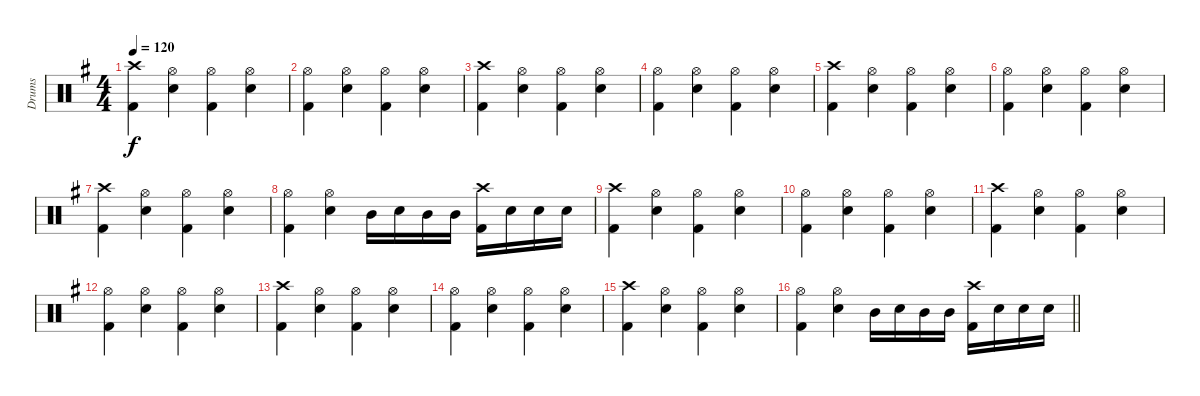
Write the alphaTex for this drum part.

\track ("Drums" "Drums") {instrument percussion}
\staff {score}
\articulation defaults
\ts (4 4)
\tempo 120
\clef neutral
\ks g
("Crash high (hit)" "Kick (hit) 2").4{dy f} ("Hi-Hat (open)" "Snare (hit) 2").4 ("Hi-Hat (open)" "Kick (hit) 2").4 ("Hi-Hat (open)" "Snare (hit) 2").4 |
("Hi-Hat (open)" "Kick (hit) 2").4 ("Hi-Hat (open)" "Snare (hit) 2").4 ("Hi-Hat (open)" "Kick (hit) 2").4 ("Hi-Hat (open)" "Snare (hit) 2").4 |
("Crash high (hit)" "Kick (hit) 2").4 ("Hi-Hat (open)" "Snare (hit) 2").4 ("Hi-Hat (open)" "Kick (hit) 2").4 ("Hi-Hat (open)" "Snare (hit) 2").4 |
("Hi-Hat (open)" "Kick (hit) 2").4 ("Hi-Hat (open)" "Snare (hit) 2").4 ("Hi-Hat (open)" "Kick (hit) 2").4 ("Hi-Hat (open)" "Snare (hit) 2").4 |
("Crash high (hit)" "Kick (hit) 2").4 ("Hi-Hat (open)" "Snare (hit) 2").4 ("Hi-Hat (open)" "Kick (hit) 2").4 ("Hi-Hat (open)" "Snare (hit) 2").4 |
("Hi-Hat (open)" "Kick (hit) 2").4 ("Hi-Hat (open)" "Snare (hit) 2").4 ("Hi-Hat (open)" "Kick (hit) 2").4 ("Hi-Hat (open)" "Snare (hit) 2").4 |
("Crash high (hit)" "Kick (hit) 2").4 ("Hi-Hat (open)" "Snare (hit) 2").4 ("Hi-Hat (open)" "Kick (hit) 2").4 ("Hi-Hat (open)" "Snare (hit) 2").4 |
("Hi-Hat (open)" "Kick (hit) 2").4 ("Hi-Hat (open)" "Snare (hit) 2").4 "Mid Tom (hit)".16 "Snare (hit) 2".16 "Mid Tom (hit)".16 "Mid Tom (hit)".16 ("Crash high (hit)" "Kick (hit) 2").16 "Snare (hit) 2".16 "Snare (hit) 2".16 "Snare (hit) 2".16 |
("Crash high (hit)" "Kick (hit) 2").4 ("Hi-Hat (open)" "Snare (hit) 2").4 ("Hi-Hat (open)" "Kick (hit) 2").4 ("Hi-Hat (open)" "Snare (hit) 2").4 |
("Hi-Hat (open)" "Kick (hit) 2").4 ("Hi-Hat (open)" "Snare (hit) 2").4 ("Hi-Hat (open)" "Kick (hit) 2").4 ("Hi-Hat (open)" "Snare (hit) 2").4 |
("Crash high (hit)" "Kick (hit) 2").4 ("Hi-Hat (open)" "Snare (hit) 2").4 ("Hi-Hat (open)" "Kick (hit) 2").4 ("Hi-Hat (open)" "Snare (hit) 2").4 |
("Hi-Hat (open)" "Kick (hit) 2").4 ("Hi-Hat (open)" "Snare (hit) 2").4 ("Hi-Hat (open)" "Kick (hit) 2").4 ("Hi-Hat (open)" "Snare (hit) 2").4 |
("Crash high (hit)" "Kick (hit) 2").4 ("Hi-Hat (open)" "Snare (hit) 2").4 ("Hi-Hat (open)" "Kick (hit) 2").4 ("Hi-Hat (open)" "Snare (hit) 2").4 |
("Hi-Hat (open)" "Kick (hit) 2").4 ("Hi-Hat (open)" "Snare (hit) 2").4 ("Hi-Hat (open)" "Kick (hit) 2").4 ("Hi-Hat (open)" "Snare (hit) 2").4 |
("Crash high (hit)" "Kick (hit) 2").4 ("Hi-Hat (open)" "Snare (hit) 2").4 ("Hi-Hat (open)" "Kick (hit) 2").4 ("Hi-Hat (open)" "Snare (hit) 2").4 |
\barLineRight lightlight
("Hi-Hat (open)" "Kick (hit) 2").4 ("Hi-Hat (open)" "Snare (hit) 2").4 "Mid Tom (hit)".16 "Snare (hit) 2".16 "Mid Tom (hit)".16 "Mid Tom (hit)".16 ("Crash high (hit)" "Kick (hit) 2").16 "Snare (hit) 2".16 "Snare (hit) 2".16 "Snare (hit) 2".16
